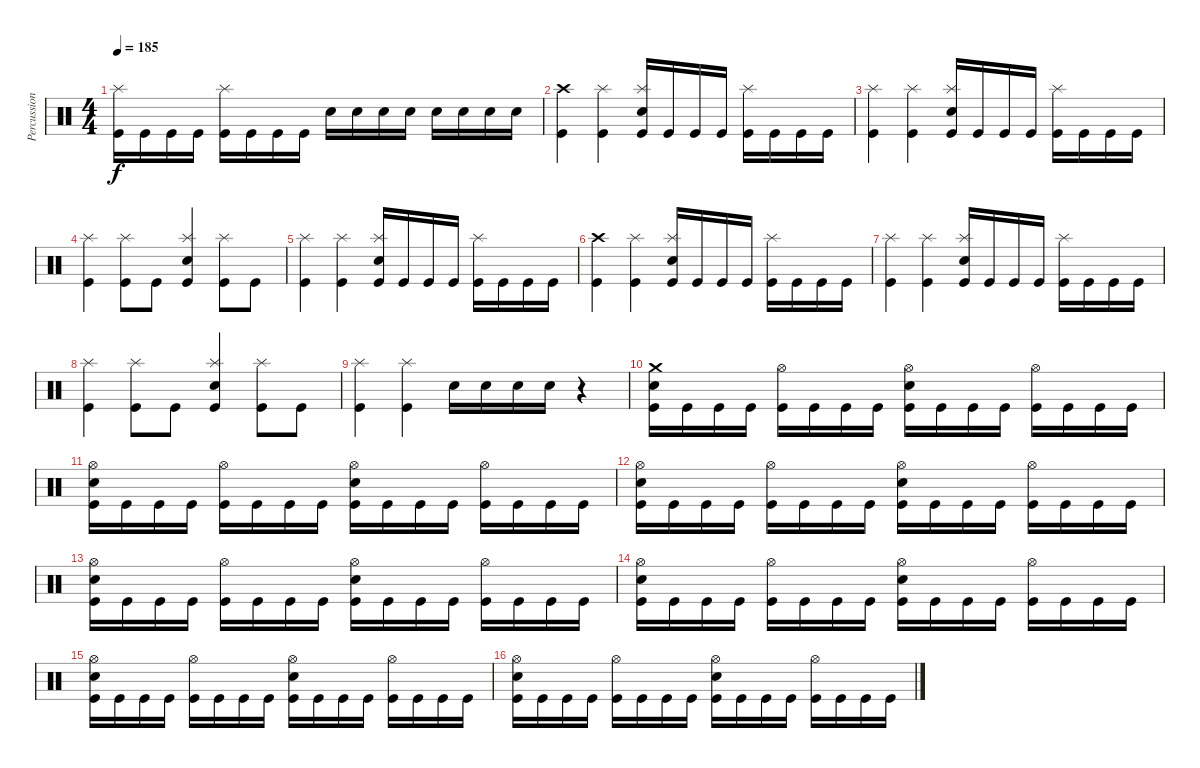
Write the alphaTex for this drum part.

\track ("Percussions" "Percussion") {instrument percussion}
\staff {score}
\articulation defaults
\ts (4 4)
\tempo 185
\clef neutral
\ks c
("Kick (hit)" "Splash (hit)").16{dy f} "Kick (hit)".16 "Kick (hit)".16 "Kick (hit)".16 ("Kick (hit)" "Splash (hit)").16 "Kick (hit)".16 "Kick (hit)".16 "Kick (hit)".16 "Electric Snare (hit)".16 "Electric Snare (hit)".16 "Electric Snare (hit)".16 "Electric Snare (hit)".16 "Electric Snare (hit)".16 "Electric Snare (hit)".16 "Electric Snare (hit)".16 "Electric Snare (hit)".16 |
("Kick (hit)" "Crash high (hit)").4 ("Kick (hit)" "Splash (hit)").4 ("Kick (hit)" "Electric Snare (hit)" "Splash (hit)").16 "Kick (hit)".16 "Kick (hit)".16 "Kick (hit)".16 ("Kick (hit)" "Splash (hit)").16 "Kick (hit)".16 "Kick (hit)".16 "Kick (hit)".16 |
("Kick (hit)" "Splash (hit)").4 ("Kick (hit)" "Splash (hit)").4 ("Kick (hit)" "Electric Snare (hit)" "Splash (hit)").16 "Kick (hit)".16 "Kick (hit)".16 "Kick (hit)".16 ("Kick (hit)" "Splash (hit)").16 "Kick (hit)".16 "Kick (hit)".16 "Kick (hit)".16 |
("Kick (hit)" "Splash (hit)").4 ("Kick (hit)" "Splash (hit)").8 "Kick (hit)".8 ("Kick (hit)" "Electric Snare (hit)" "Splash (hit)").4 ("Kick (hit)" "Splash (hit)").8 "Kick (hit)".8 |
("Kick (hit)" "Splash (hit)").4 ("Kick (hit)" "Splash (hit)").4 ("Kick (hit)" "Electric Snare (hit)" "Splash (hit)").16 "Kick (hit)".16 "Kick (hit)".16 "Kick (hit)".16 ("Kick (hit)" "Splash (hit)").16 "Kick (hit)".16 "Kick (hit)".16 "Kick (hit)".16 |
("Kick (hit)" "Crash high (hit)").4 ("Kick (hit)" "Splash (hit)").4 ("Kick (hit)" "Electric Snare (hit)" "Splash (hit)").16 "Kick (hit)".16 "Kick (hit)".16 "Kick (hit)".16 ("Kick (hit)" "Splash (hit)").16 "Kick (hit)".16 "Kick (hit)".16 "Kick (hit)".16 |
("Kick (hit)" "Splash (hit)").4 ("Kick (hit)" "Splash (hit)").4 ("Kick (hit)" "Electric Snare (hit)" "Splash (hit)").16 "Kick (hit)".16 "Kick (hit)".16 "Kick (hit)".16 ("Kick (hit)" "Splash (hit)").16 "Kick (hit)".16 "Kick (hit)".16 "Kick (hit)".16 |
("Kick (hit)" "Splash (hit)").4 ("Kick (hit)" "Splash (hit)").8 "Kick (hit)".8 ("Kick (hit)" "Electric Snare (hit)" "Splash (hit)").4 ("Kick (hit)" "Splash (hit)").8 "Kick (hit)".8 |
("Kick (hit)" "Splash (hit)").4 ("Kick (hit)" "Splash (hit)").4 "Electric Snare (hit)".16 "Electric Snare (hit)".16 "Electric Snare (hit)".16 "Electric Snare (hit)".16 r.4 |
("Kick (hit)" "Electric Snare (hit)" "Crash medium (hit)").16 "Kick (hit)".16 "Kick (hit)".16 "Kick (hit)".16 ("Kick (hit)" "Hi-Hat (open)").16 "Kick (hit)".16 "Kick (hit)".16 "Kick (hit)".16 ("Kick (hit)" "Electric Snare (hit)" "Hi-Hat (open)").16 "Kick (hit)".16 "Kick (hit)".16 "Kick (hit)".16 ("Kick (hit)" "Hi-Hat (open)").16 "Kick (hit)".16 "Kick (hit)".16 "Kick (hit)".16 |
("Kick (hit)" "Electric Snare (hit)" "Hi-Hat (open)").16 "Kick (hit)".16 "Kick (hit)".16 "Kick (hit)".16 ("Kick (hit)" "Hi-Hat (open)").16 "Kick (hit)".16 "Kick (hit)".16 "Kick (hit)".16 ("Kick (hit)" "Electric Snare (hit)" "Hi-Hat (open)").16 "Kick (hit)".16 "Kick (hit)".16 "Kick (hit)".16 ("Kick (hit)" "Hi-Hat (open)").16 "Kick (hit)".16 "Kick (hit)".16 "Kick (hit)".16 |
("Kick (hit)" "Electric Snare (hit)" "Hi-Hat (open)").16 "Kick (hit)".16 "Kick (hit)".16 "Kick (hit)".16 ("Kick (hit)" "Hi-Hat (open)").16 "Kick (hit)".16 "Kick (hit)".16 "Kick (hit)".16 ("Kick (hit)" "Electric Snare (hit)" "Hi-Hat (open)").16 "Kick (hit)".16 "Kick (hit)".16 "Kick (hit)".16 ("Kick (hit)" "Hi-Hat (open)").16 "Kick (hit)".16 "Kick (hit)".16 "Kick (hit)".16 |
("Kick (hit)" "Electric Snare (hit)" "Hi-Hat (open)").16 "Kick (hit)".16 "Kick (hit)".16 "Kick (hit)".16 ("Kick (hit)" "Hi-Hat (open)").16 "Kick (hit)".16 "Kick (hit)".16 "Kick (hit)".16 ("Kick (hit)" "Electric Snare (hit)" "Hi-Hat (open)").16 "Kick (hit)".16 "Kick (hit)".16 "Kick (hit)".16 ("Kick (hit)" "Hi-Hat (open)").16 "Kick (hit)".16 "Kick (hit)".16 "Kick (hit)".16 |
("Kick (hit)" "Electric Snare (hit)" "Hi-Hat (open)").16 "Kick (hit)".16 "Kick (hit)".16 "Kick (hit)".16 ("Kick (hit)" "Hi-Hat (open)").16 "Kick (hit)".16 "Kick (hit)".16 "Kick (hit)".16 ("Kick (hit)" "Electric Snare (hit)" "Hi-Hat (open)").16 "Kick (hit)".16 "Kick (hit)".16 "Kick (hit)".16 ("Kick (hit)" "Hi-Hat (open)").16 "Kick (hit)".16 "Kick (hit)".16 "Kick (hit)".16 |
("Kick (hit)" "Electric Snare (hit)" "Hi-Hat (open)").16 "Kick (hit)".16 "Kick (hit)".16 "Kick (hit)".16 ("Kick (hit)" "Hi-Hat (open)").16 "Kick (hit)".16 "Kick (hit)".16 "Kick (hit)".16 ("Kick (hit)" "Electric Snare (hit)" "Hi-Hat (open)").16 "Kick (hit)".16 "Kick (hit)".16 "Kick (hit)".16 ("Kick (hit)" "Hi-Hat (open)").16 "Kick (hit)".16 "Kick (hit)".16 "Kick (hit)".16 |
("Kick (hit)" "Electric Snare (hit)" "Hi-Hat (open)").16 "Kick (hit)".16 "Kick (hit)".16 "Kick (hit)".16 ("Kick (hit)" "Hi-Hat (open)").16 "Kick (hit)".16 "Kick (hit)".16 "Kick (hit)".16 ("Kick (hit)" "Electric Snare (hit)" "Hi-Hat (open)").16 "Kick (hit)".16 "Kick (hit)".16 "Kick (hit)".16 ("Kick (hit)" "Hi-Hat (open)").16 "Kick (hit)".16 "Kick (hit)".16 "Kick (hit)".16
